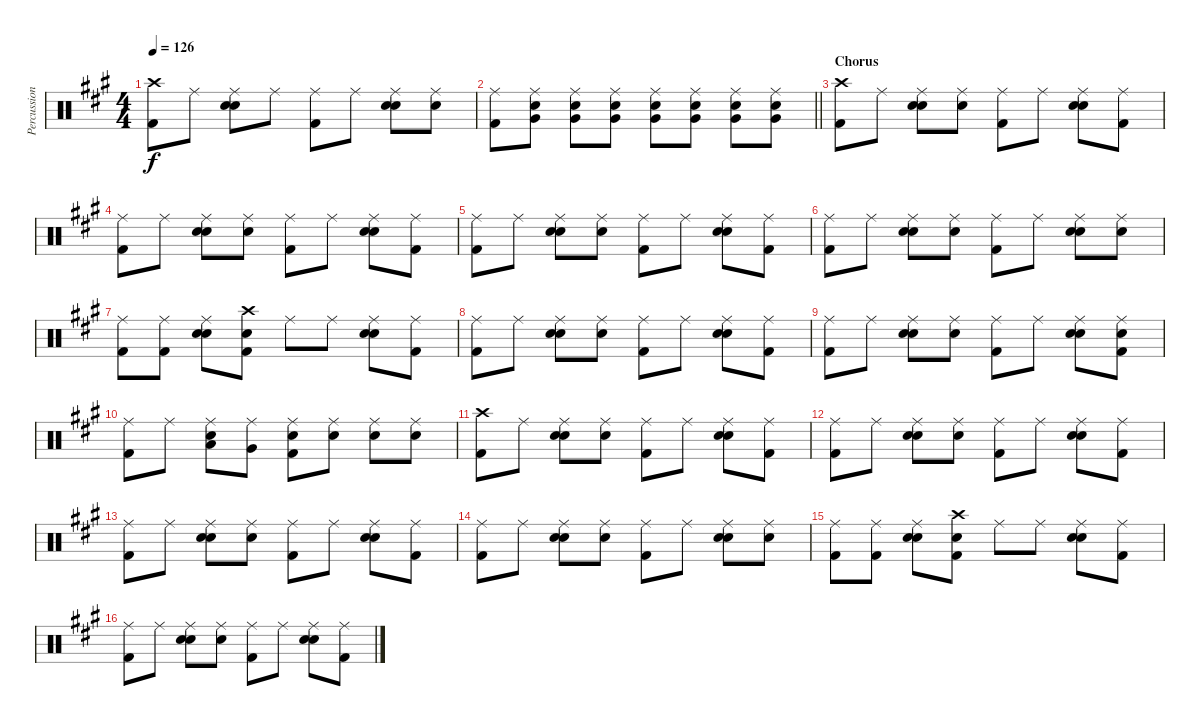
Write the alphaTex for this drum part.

\track ("Percussion" "Percussion") {instrument percussion}
\staff {score}
\articulation defaults
\ts (4 4)
\tempo 126
\clef neutral
\ks a
("Crash high (hit)" "Kick (hit) 2").8{dy f} "Ride (middle)".8 ("Ride (middle)" "Hand Clap (hit)" "Snare (hit) 2").8 "Ride (middle)".8 ("Ride (middle)" "Kick (hit) 2").8 "Ride (middle)".8 ("Ride (middle)" "Hand Clap (hit)" "Snare (hit) 2").8 ("Ride (middle)" "Snare (hit) 2").8 |
\barLineRight lightlight
("Ride (middle)" "Kick (hit) 2").8 ("Ride (middle)" "Very Low Tom (hit)" "Snare (hit) 2").8 ("Ride (middle)" "Very Low Tom (hit)" "Snare (hit) 2").8 ("Ride (middle)" "Very Low Tom (hit)" "Snare (hit) 2").8 ("Ride (middle)" "Very Low Tom (hit)" "Snare (hit) 2").8 ("Ride (middle)" "Very Low Tom (hit)" "Snare (hit) 2").8 ("Ride (middle)" "Very Low Tom (hit)" "Snare (hit) 2").8 ("Ride (middle)" "Very Low Tom (hit)" "Snare (hit) 2").8 |
\section ("" "Chorus")
("Crash high (hit)" "Kick (hit) 2").8 "Ride (middle)".8 ("Ride (middle)" "Hand Clap (hit)" "Snare (hit) 2").8 ("Ride (middle)" "Hand Clap (hit)").8 ("Ride (middle)" "Kick (hit) 2").8 "Ride (middle)".8 ("Ride (middle)" "Hand Clap (hit)" "Snare (hit) 2").8 ("Ride (middle)" "Kick (hit) 2").8 |
("Ride (middle)" "Kick (hit) 2").8 "Ride (middle)".8 ("Ride (middle)" "Hand Clap (hit)" "Snare (hit) 2").8 ("Ride (middle)" "Hand Clap (hit)").8 ("Ride (middle)" "Kick (hit) 2").8 "Ride (middle)".8 ("Ride (middle)" "Hand Clap (hit)" "Snare (hit) 2").8 ("Ride (middle)" "Kick (hit) 2").8 |
("Ride (middle)" "Kick (hit) 2").8 "Ride (middle)".8 ("Ride (middle)" "Hand Clap (hit)" "Snare (hit) 2").8 ("Ride (middle)" "Hand Clap (hit)").8 ("Ride (middle)" "Kick (hit) 2").8 "Ride (middle)".8 ("Ride (middle)" "Hand Clap (hit)" "Snare (hit) 2").8 ("Ride (middle)" "Kick (hit) 2").8 |
("Ride (middle)" "Kick (hit) 2").8 "Ride (middle)".8 ("Ride (middle)" "Hand Clap (hit)" "Snare (hit) 2").8 ("Ride (middle)" "Hand Clap (hit)").8 ("Ride (middle)" "Kick (hit) 2").8 "Ride (middle)".8 ("Ride (middle)" "Hand Clap (hit)" "Snare (hit) 2").8 ("Ride (middle)" "Snare (hit) 2").8 |
("Ride (middle)" "Kick (hit) 2").8 ("Ride (middle)" "Kick (hit) 2").8 ("Ride (middle)" "Hand Clap (hit)" "Snare (hit) 2").8 ("Crash high (hit)" "Hand Clap (hit)" "Kick (hit) 2").8 "Ride (middle)".8 "Ride (middle)".8 ("Ride (middle)" "Hand Clap (hit)" "Snare (hit) 2").8 ("Ride (middle)" "Kick (hit) 2").8 |
("Ride (middle)" "Kick (hit) 2").8 "Ride (middle)".8 ("Ride (middle)" "Hand Clap (hit)" "Snare (hit) 2").8 ("Ride (middle)" "Hand Clap (hit)").8 ("Ride (middle)" "Kick (hit) 2").8 "Ride (middle)".8 ("Ride (middle)" "Hand Clap (hit)" "Snare (hit) 2").8 ("Ride (middle)" "Kick (hit) 2").8 |
("Ride (middle)" "Kick (hit) 2").8 "Ride (middle)".8 ("Ride (middle)" "Hand Clap (hit)" "Snare (hit) 2").8 ("Ride (middle)" "Hand Clap (hit)").8 ("Ride (middle)" "Kick (hit) 2").8 "Ride (middle)".8 ("Ride (middle)" "Hand Clap (hit)" "Snare (hit) 2").8 ("Ride (middle)" "Hand Clap (hit)" "Kick (hit) 2").8 |
("Ride (middle)" "Kick (hit) 2").8 "Ride (middle)".8 ("Ride (middle)" "Low Tom (hit)" "Snare (hit) 2").8 ("Ride (middle)" "Very Low Tom (hit)").8 ("Ride (middle)" "Snare (hit) 2" "Kick (hit) 2").8 ("Ride (middle)" "Snare (hit) 2").8 ("Ride (middle)" "Snare (hit) 2").8 ("Ride (middle)" "Snare (hit) 2").8 |
("Crash high (hit)" "Kick (hit) 2").8 "Ride (middle)".8 ("Ride (middle)" "Hand Clap (hit)" "Snare (hit) 2").8 ("Ride (middle)" "Hand Clap (hit)").8 ("Ride (middle)" "Kick (hit) 2").8 "Ride (middle)".8 ("Ride (middle)" "Hand Clap (hit)" "Snare (hit) 2").8 ("Ride (middle)" "Kick (hit) 2").8 |
("Ride (middle)" "Kick (hit) 2").8 "Ride (middle)".8 ("Ride (middle)" "Hand Clap (hit)" "Snare (hit) 2").8 ("Ride (middle)" "Hand Clap (hit)").8 ("Ride (middle)" "Kick (hit) 2").8 "Ride (middle)".8 ("Ride (middle)" "Hand Clap (hit)" "Snare (hit) 2").8 ("Ride (middle)" "Kick (hit) 2").8 |
("Ride (middle)" "Kick (hit) 2").8 "Ride (middle)".8 ("Ride (middle)" "Hand Clap (hit)" "Snare (hit) 2").8 ("Ride (middle)" "Hand Clap (hit)").8 ("Ride (middle)" "Kick (hit) 2").8 "Ride (middle)".8 ("Ride (middle)" "Hand Clap (hit)" "Snare (hit) 2").8 ("Ride (middle)" "Kick (hit) 2").8 |
("Ride (middle)" "Kick (hit) 2").8 "Ride (middle)".8 ("Ride (middle)" "Hand Clap (hit)" "Snare (hit) 2").8 ("Ride (middle)" "Hand Clap (hit)").8 ("Ride (middle)" "Kick (hit) 2").8 "Ride (middle)".8 ("Ride (middle)" "Hand Clap (hit)" "Snare (hit) 2").8 ("Ride (middle)" "Snare (hit) 2").8 |
("Ride (middle)" "Kick (hit) 2").8 ("Ride (middle)" "Kick (hit) 2").8 ("Ride (middle)" "Hand Clap (hit)" "Snare (hit) 2").8 ("Crash high (hit)" "Hand Clap (hit)" "Kick (hit) 2").8 "Ride (middle)".8 "Ride (middle)".8 ("Ride (middle)" "Hand Clap (hit)" "Snare (hit) 2").8 ("Ride (middle)" "Kick (hit) 2").8 |
("Ride (middle)" "Kick (hit) 2").8 "Ride (middle)".8 ("Ride (middle)" "Hand Clap (hit)" "Snare (hit) 2").8 ("Ride (middle)" "Hand Clap (hit)").8 ("Ride (middle)" "Kick (hit) 2").8 "Ride (middle)".8 ("Ride (middle)" "Hand Clap (hit)" "Snare (hit) 2").8 ("Ride (middle)" "Kick (hit) 2").8
